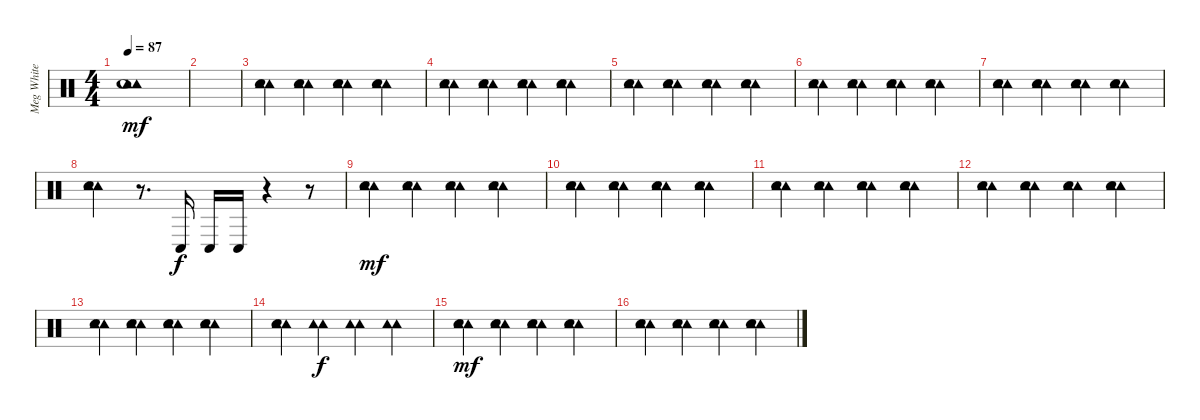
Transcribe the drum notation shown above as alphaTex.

\track ("Meg White - Drums" "Meg White ") {instrument percussion}
\staff {score}
\articulation defaults
\ts (4 4)
\tempo 87
\clef neutral
\ks c
("Tambourine (hit)" "Tambourine (hit)" "Snare (hit) 2").1{dy mf} |
|
("Tambourine (hit)" "Tambourine (hit)" "Snare (hit) 2").4 ("Tambourine (hit)" "Tambourine (hit)" "Snare (hit) 2").4 ("Tambourine (hit)" "Tambourine (hit)" "Snare (hit) 2").4 ("Tambourine (hit)" "Tambourine (hit)" "Snare (hit) 2").4 |
("Tambourine (hit)" "Tambourine (hit)" "Snare (hit) 2").4 ("Tambourine (hit)" "Tambourine (hit)" "Snare (hit) 2").4 ("Tambourine (hit)" "Tambourine (hit)" "Snare (hit) 2").4 ("Tambourine (hit)" "Tambourine (hit)" "Snare (hit) 2").4 |
("Tambourine (hit)" "Tambourine (hit)" "Snare (hit) 2").4 ("Tambourine (hit)" "Tambourine (hit)" "Snare (hit) 2").4 ("Tambourine (hit)" "Tambourine (hit)" "Snare (hit) 2").4 ("Tambourine (hit)" "Tambourine (hit)" "Snare (hit) 2").4 |
("Tambourine (hit)" "Tambourine (hit)" "Snare (hit) 2").4 ("Tambourine (hit)" "Tambourine (hit)" "Snare (hit) 2").4 ("Tambourine (hit)" "Tambourine (hit)" "Snare (hit) 2").4 ("Tambourine (hit)" "Tambourine (hit)" "Snare (hit) 2").4 |
("Tambourine (hit)" "Tambourine (hit)" "Snare (hit) 2").4 ("Tambourine (hit)" "Tambourine (hit)" "Snare (hit) 2").4 ("Tambourine (hit)" "Tambourine (hit)" "Snare (hit) 2").4 ("Tambourine (hit)" "Tambourine (hit)" "Snare (hit) 2").4 |
("Tambourine (hit)" "Tambourine (hit)" "Snare (hit) 2").4 r.8{d} "Conga low (hit)".16{dy f} "Conga low (hit)".16 "Conga low (hit)".16 r.4 r.8 |
("Tambourine (hit)" "Tambourine (hit)" "Snare (hit) 2").4{dy mf} ("Tambourine (hit)" "Tambourine (hit)" "Snare (hit) 2").4 ("Tambourine (hit)" "Tambourine (hit)" "Snare (hit) 2").4 ("Tambourine (hit)" "Tambourine (hit)" "Snare (hit) 2").4 |
("Tambourine (hit)" "Tambourine (hit)" "Snare (hit) 2").4 ("Tambourine (hit)" "Tambourine (hit)" "Snare (hit) 2").4 ("Tambourine (hit)" "Tambourine (hit)" "Snare (hit) 2").4 ("Tambourine (hit)" "Tambourine (hit)" "Snare (hit) 2").4 |
("Tambourine (hit)" "Tambourine (hit)" "Snare (hit) 2").4 ("Tambourine (hit)" "Tambourine (hit)" "Snare (hit) 2").4 ("Tambourine (hit)" "Tambourine (hit)" "Snare (hit) 2").4 ("Tambourine (hit)" "Tambourine (hit)" "Snare (hit) 2").4 |
("Tambourine (hit)" "Tambourine (hit)" "Snare (hit) 2").4 ("Tambourine (hit)" "Tambourine (hit)" "Snare (hit) 2").4 ("Tambourine (hit)" "Tambourine (hit)" "Snare (hit) 2").4 ("Tambourine (hit)" "Tambourine (hit)" "Snare (hit) 2").4 |
("Tambourine (hit)" "Tambourine (hit)" "Snare (hit) 2").4 ("Tambourine (hit)" "Tambourine (hit)" "Snare (hit) 2").4 ("Tambourine (hit)" "Tambourine (hit)" "Snare (hit) 2").4 ("Tambourine (hit)" "Tambourine (hit)" "Snare (hit) 2").4 |
("Tambourine (hit)" "Tambourine (hit)" "Snare (hit) 2").4 ("Tambourine (hit)" "Tambourine (hit)").4{dy f} ("Tambourine (hit)" "Tambourine (hit)").4 ("Tambourine (hit)" "Tambourine (hit)").4 |
("Tambourine (hit)" "Tambourine (hit)" "Snare (hit) 2").4{dy mf} ("Tambourine (hit)" "Tambourine (hit)" "Snare (hit) 2").4 ("Tambourine (hit)" "Tambourine (hit)" "Snare (hit) 2").4 ("Tambourine (hit)" "Tambourine (hit)" "Snare (hit) 2").4 |
("Tambourine (hit)" "Tambourine (hit)" "Snare (hit) 2").4 ("Tambourine (hit)" "Tambourine (hit)" "Snare (hit) 2").4 ("Tambourine (hit)" "Tambourine (hit)" "Snare (hit) 2").4 ("Tambourine (hit)" "Tambourine (hit)" "Snare (hit) 2").4
